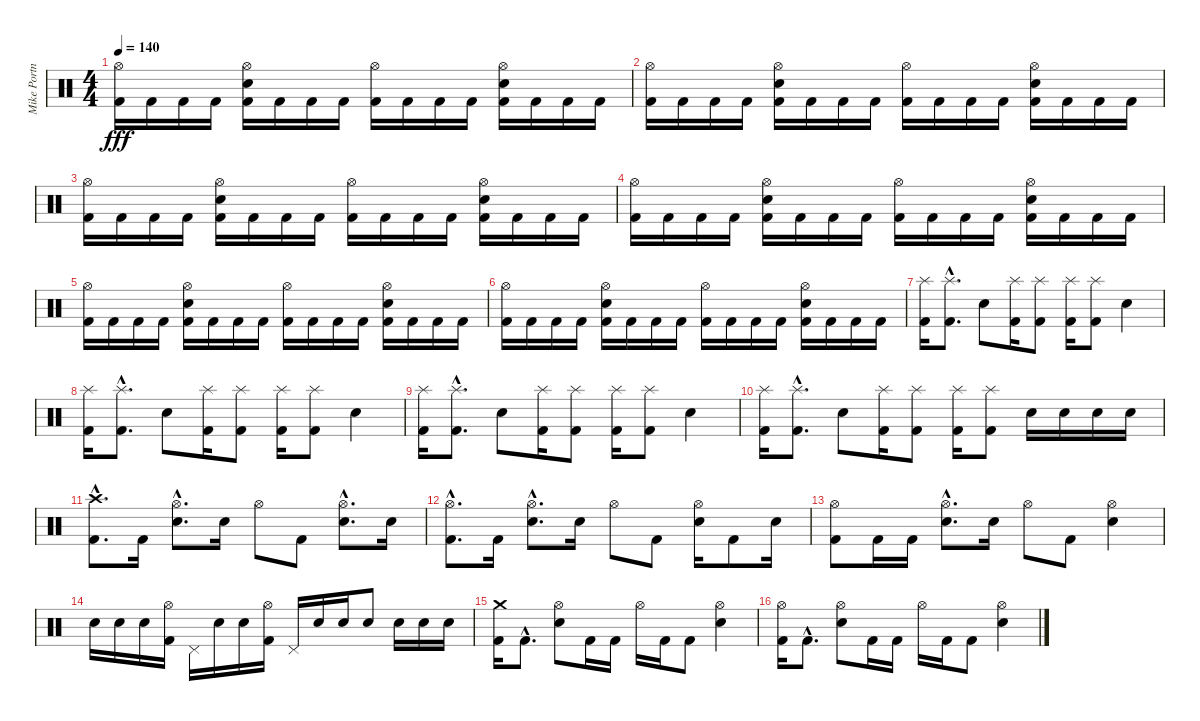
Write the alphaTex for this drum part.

\track ("Mike Portnoy - Drum" "Mike Portn") {instrument percussion}
\staff {score}
\articulation defaults
\ts (4 4)
\tempo 140
\clef neutral
\ks c
("Hi-Hat (open)" "Kick (hit) 2").16{dy fff} "Kick (hit) 2".16 "Kick (hit) 2".16 "Kick (hit) 2".16 ("Hi-Hat (open)" "Snare (hit) 2" "Kick (hit) 2").16 "Kick (hit) 2".16 "Kick (hit) 2".16 "Kick (hit) 2".16 ("Hi-Hat (open)" "Kick (hit) 2").16 "Kick (hit) 2".16 "Kick (hit) 2".16 "Kick (hit) 2".16 ("Hi-Hat (open)" "Snare (hit) 2" "Kick (hit) 2").16 "Kick (hit) 2".16 "Kick (hit) 2".16 "Kick (hit) 2".16 |
("Hi-Hat (open)" "Kick (hit) 2").16 "Kick (hit) 2".16 "Kick (hit) 2".16 "Kick (hit) 2".16 ("Hi-Hat (open)" "Snare (hit) 2" "Kick (hit) 2").16 "Kick (hit) 2".16 "Kick (hit) 2".16 "Kick (hit) 2".16 ("Hi-Hat (open)" "Kick (hit) 2").16 "Kick (hit) 2".16 "Kick (hit) 2".16 "Kick (hit) 2".16 ("Hi-Hat (open)" "Snare (hit) 2" "Kick (hit) 2").16 "Kick (hit) 2".16 "Kick (hit) 2".16 "Kick (hit) 2".16 |
("Hi-Hat (open)" "Kick (hit) 2").16 "Kick (hit) 2".16 "Kick (hit) 2".16 "Kick (hit) 2".16 ("Hi-Hat (open)" "Snare (hit) 2" "Kick (hit) 2").16 "Kick (hit) 2".16 "Kick (hit) 2".16 "Kick (hit) 2".16 ("Hi-Hat (open)" "Kick (hit) 2").16 "Kick (hit) 2".16 "Kick (hit) 2".16 "Kick (hit) 2".16 ("Hi-Hat (open)" "Snare (hit) 2" "Kick (hit) 2").16 "Kick (hit) 2".16 "Kick (hit) 2".16 "Kick (hit) 2".16 |
("Hi-Hat (open)" "Kick (hit) 2").16 "Kick (hit) 2".16 "Kick (hit) 2".16 "Kick (hit) 2".16 ("Hi-Hat (open)" "Snare (hit) 2" "Kick (hit) 2").16 "Kick (hit) 2".16 "Kick (hit) 2".16 "Kick (hit) 2".16 ("Hi-Hat (open)" "Kick (hit) 2").16 "Kick (hit) 2".16 "Kick (hit) 2".16 "Kick (hit) 2".16 ("Hi-Hat (open)" "Snare (hit) 2" "Kick (hit) 2").16 "Kick (hit) 2".16 "Kick (hit) 2".16 "Kick (hit) 2".16 |
("Hi-Hat (open)" "Kick (hit) 2").16 "Kick (hit) 2".16 "Kick (hit) 2".16 "Kick (hit) 2".16 ("Hi-Hat (open)" "Snare (hit) 2" "Kick (hit) 2").16 "Kick (hit) 2".16 "Kick (hit) 2".16 "Kick (hit) 2".16 ("Hi-Hat (open)" "Kick (hit) 2").16 "Kick (hit) 2".16 "Kick (hit) 2".16 "Kick (hit) 2".16 ("Hi-Hat (open)" "Snare (hit) 2" "Kick (hit) 2").16 "Kick (hit) 2".16 "Kick (hit) 2".16 "Kick (hit) 2".16 |
("Hi-Hat (open)" "Kick (hit) 2").16 "Kick (hit) 2".16 "Kick (hit) 2".16 "Kick (hit) 2".16 ("Hi-Hat (open)" "Snare (hit) 2" "Kick (hit) 2").16 "Kick (hit) 2".16 "Kick (hit) 2".16 "Kick (hit) 2".16 ("Hi-Hat (open)" "Kick (hit) 2").16 "Kick (hit) 2".16 "Kick (hit) 2".16 "Kick (hit) 2".16 ("Hi-Hat (open)" "Snare (hit) 2" "Kick (hit) 2").16 "Kick (hit) 2".16 "Kick (hit) 2".16 "Kick (hit) 2".16 |
("Splash (hit)" "Kick (hit) 2").16 ("Splash (hit)"{hac} "Kick (hit) 2"{hac}).8{d} "Snare (hit) 2".8 ("Splash (hit)" "Kick (hit) 2").16 ("Splash (hit)" "Kick (hit) 2").8 ("Splash (hit)" "Kick (hit) 2").16 ("Splash (hit)" "Kick (hit) 2").8 "Snare (hit) 2".4 |
("Splash (hit)" "Kick (hit) 2").16 ("Splash (hit)"{hac} "Kick (hit) 2"{hac}).8{d} "Snare (hit) 2".8 ("Splash (hit)" "Kick (hit) 2").16 ("Splash (hit)" "Kick (hit) 2").8 ("Splash (hit)" "Kick (hit) 2").16 ("Splash (hit)" "Kick (hit) 2").8 "Snare (hit) 2".4 |
("Splash (hit)" "Kick (hit) 2").16 ("Splash (hit)"{hac} "Kick (hit) 2"{hac}).8{d} "Snare (hit) 2".8 ("Splash (hit)" "Kick (hit) 2").16 ("Splash (hit)" "Kick (hit) 2").8 ("Splash (hit)" "Kick (hit) 2").16 ("Splash (hit)" "Kick (hit) 2").8 "Snare (hit) 2".4 |
("Splash (hit)" "Kick (hit) 2").16 ("Splash (hit)"{hac} "Kick (hit) 2"{hac}).8{d} "Snare (hit) 2".8 ("Splash (hit)" "Kick (hit) 2").16 ("Splash (hit)" "Kick (hit) 2").8 ("Splash (hit)" "Kick (hit) 2").16 ("Splash (hit)" "Kick (hit) 2").8 "Snare (hit) 2".16 "Snare (hit) 2".16 "Snare (hit) 2".16 "Snare (hit) 2".16 |
("Crash high (hit)"{hac} "Kick (hit) 2"{hac}).8{d} "Kick (hit) 2".16 ("Hi-Hat (open)"{hac} "Snare (hit) 2"{hac}).8{d} "Snare (hit) 2".16 "Hi-Hat (open)".8 "Kick (hit) 2".8 ("Hi-Hat (open)"{hac} "Snare (hit) 2"{hac}).8{d} "Snare (hit) 2".16 |
("Hi-Hat (open)"{hac} "Kick (hit) 2"{hac}).8{d} "Kick (hit) 2".16 ("Hi-Hat (open)"{hac} "Snare (hit) 2"{hac}).8{d} "Snare (hit) 2".16 "Hi-Hat (open)".8 "Kick (hit) 2".8 ("Hi-Hat (open)" "Snare (hit) 2").16 "Kick (hit) 2".8 "Snare (hit) 2".16 |
("Hi-Hat (open)" "Kick (hit) 2").8 "Kick (hit) 2".16 "Kick (hit) 2".16 ("Hi-Hat (open)"{hac} "Snare (hit) 2"{hac}).8{d} "Snare (hit) 2".16 "Hi-Hat (open)".8 "Kick (hit) 2".8 ("Hi-Hat (open)" "Snare (hit) 2").4 |
"Snare (hit) 2".16 "Snare (hit) 2".16 "Snare (hit) 2".16 ("Hi-Hat (open)" "Kick (hit) 2").16 "Pedal Hi-Hat (hit)".16 "Snare (hit) 2".16 "Snare (hit) 2".16 ("Hi-Hat (open)" "Kick (hit) 2").16 "Pedal Hi-Hat (hit)".16 "Snare (hit) 2".16 "Snare (hit) 2".16 "Snare (hit) 2".8 "Snare (hit) 2".16 "Snare (hit) 2".16 "Snare (hit) 2".16 |
("Crash medium (hit)" "Kick (hit) 2").16 "Kick (hit) 2"{hac}.8{d} ("Hi-Hat (open)" "Snare (hit) 2").8 "Kick (hit) 2".16 "Kick (hit) 2".16 "Hi-Hat (open)".16 "Kick (hit) 2".16 "Kick (hit) 2".8 ("Hi-Hat (open)" "Snare (hit) 2").4 |
("Hi-Hat (open)" "Kick (hit) 2").16 "Kick (hit) 2"{hac}.8{d} ("Hi-Hat (open)" "Snare (hit) 2").8 "Kick (hit) 2".16 "Kick (hit) 2".16 "Hi-Hat (open)".16 "Kick (hit) 2".16 "Kick (hit) 2".8 ("Hi-Hat (open)" "Snare (hit) 2").4
